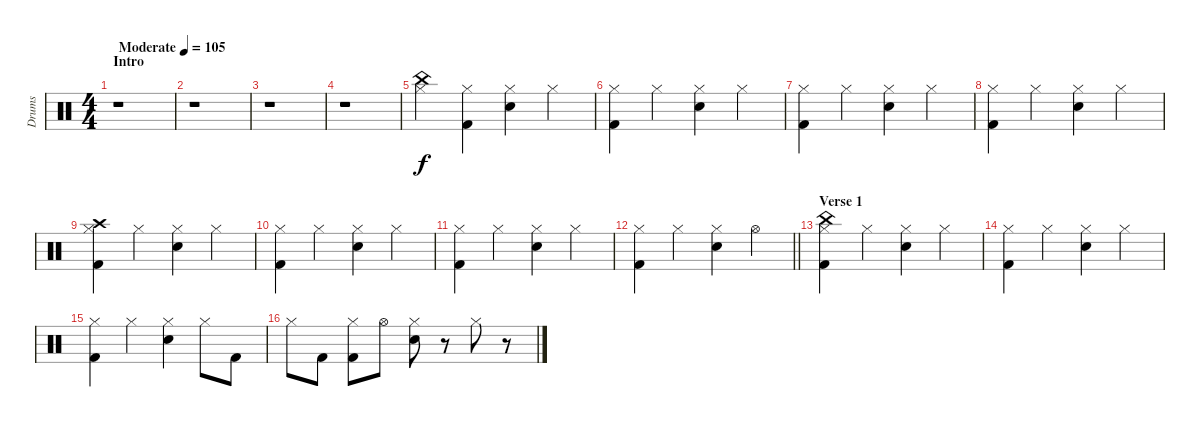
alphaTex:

\track ("Drums" "Drums") {instrument percussion}
\staff {score}
\articulation defaults
\ts (4 4)
\section ("" "Intro")
\tempo (105 "Moderate")
\clef neutral
\ks c
r.1{dy f} |
r.1 |
r.1 |
r.1 |
("China (hit)" "Hi-Hat (closed)").4 ("Hi-Hat (closed)" "Kick (hit) 2").4 ("Hi-Hat (closed)" "Electric Snare (hit)").4 "Hi-Hat (closed)".4 |
("Hi-Hat (closed)" "Kick (hit) 2").4 "Hi-Hat (closed)".4 ("Hi-Hat (closed)" "Electric Snare (hit)").4 "Hi-Hat (closed)".4 |
("Hi-Hat (closed)" "Kick (hit) 2").4 "Hi-Hat (closed)".4 ("Hi-Hat (closed)" "Electric Snare (hit)").4 "Hi-Hat (closed)".4 |
("Hi-Hat (closed)" "Kick (hit) 2").4 "Hi-Hat (closed)".4 ("Hi-Hat (closed)" "Electric Snare (hit)").4 "Hi-Hat (closed)".4 |
("Crash high (hit)" "Hi-Hat (closed)" "Kick (hit) 2").4 "Hi-Hat (closed)".4 ("Hi-Hat (closed)" "Electric Snare (hit)").4 "Hi-Hat (closed)".4 |
("Hi-Hat (closed)" "Kick (hit) 2").4 "Hi-Hat (closed)".4 ("Hi-Hat (closed)" "Electric Snare (hit)").4 "Hi-Hat (closed)".4 |
("Hi-Hat (closed)" "Kick (hit) 2").4 "Hi-Hat (closed)".4 ("Hi-Hat (closed)" "Electric Snare (hit)").4 "Hi-Hat (closed)".4 |
\barLineRight lightlight
("Hi-Hat (closed)" "Kick (hit) 2").4 "Hi-Hat (closed)".4 ("Hi-Hat (closed)" "Electric Snare (hit)").4 "Hi-Hat (open)".4 |
\section ("" "Verse 1")
("China (hit)" "Hi-Hat (closed)" "Kick (hit) 2").4 "Hi-Hat (closed)".4 ("Hi-Hat (closed)" "Electric Snare (hit)").4 "Hi-Hat (closed)".4 |
("Hi-Hat (closed)" "Kick (hit) 2").4 "Hi-Hat (closed)".4 ("Hi-Hat (closed)" "Electric Snare (hit)").4 "Hi-Hat (closed)".4 |
("Hi-Hat (closed)" "Kick (hit) 2").4 "Hi-Hat (closed)".4 ("Hi-Hat (closed)" "Electric Snare (hit)").4 "Hi-Hat (closed)".8 "Kick (hit) 2".8 |
"Hi-Hat (closed)".8 "Kick (hit) 2".8 ("Hi-Hat (closed)" "Kick (hit) 2").8 "Hi-Hat (open)".8 ("Hi-Hat (closed)" "Electric Snare (hit)").8 r.8 "Hi-Hat (closed)".8 r.8
